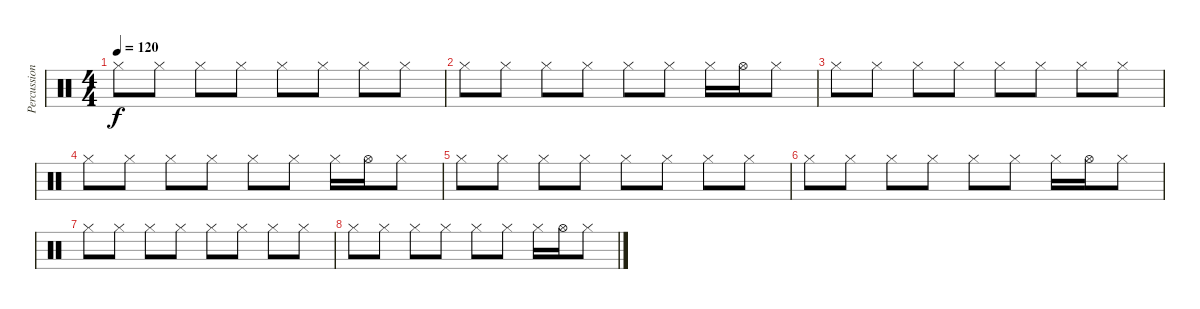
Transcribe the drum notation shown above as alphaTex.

\track ("Percussion" "Percussion") {instrument percussion}
\staff {score}
\articulation defaults
\ts (4 4)
\tempo 120
\clef neutral
\ks c "Hi-Hat (closed)".8{dy f} "Hi-Hat (closed)".8 "Hi-Hat (closed)".8 "Hi-Hat (closed)".8 "Hi-Hat (closed)".8 "Hi-Hat (closed)".8 "Hi-Hat (closed)".8 "Hi-Hat (closed)".8
|
"Hi-Hat (closed)".8 "Hi-Hat (closed)".8 "Hi-Hat (closed)".8 "Hi-Hat (closed)".8 "Hi-Hat (closed)".8 "Hi-Hat (closed)".8 "Hi-Hat (closed)".16 "Hi-Hat (open)".16 "Hi-Hat (closed)".8 |
"Hi-Hat (closed)".8 "Hi-Hat (closed)".8 "Hi-Hat (closed)".8 "Hi-Hat (closed)".8 "Hi-Hat (closed)".8 "Hi-Hat (closed)".8 "Hi-Hat (closed)".8 "Hi-Hat (closed)".8 |
"Hi-Hat (closed)".8 "Hi-Hat (closed)".8 "Hi-Hat (closed)".8 "Hi-Hat (closed)".8 "Hi-Hat (closed)".8 "Hi-Hat (closed)".8 "Hi-Hat (closed)".16 "Hi-Hat (open)".16 "Hi-Hat (closed)".8 |
"Hi-Hat (closed)".8 "Hi-Hat (closed)".8 "Hi-Hat (closed)".8 "Hi-Hat (closed)".8 "Hi-Hat (closed)".8 "Hi-Hat (closed)".8 "Hi-Hat (closed)".8 "Hi-Hat (closed)".8 |
"Hi-Hat (closed)".8 "Hi-Hat (closed)".8 "Hi-Hat (closed)".8 "Hi-Hat (closed)".8 "Hi-Hat (closed)".8 "Hi-Hat (closed)".8 "Hi-Hat (closed)".16 "Hi-Hat (open)".16 "Hi-Hat (closed)".8 |
"Hi-Hat (closed)".8 "Hi-Hat (closed)".8 "Hi-Hat (closed)".8 "Hi-Hat (closed)".8 "Hi-Hat (closed)".8 "Hi-Hat (closed)".8 "Hi-Hat (closed)".8 "Hi-Hat (closed)".8 |
"Hi-Hat (closed)".8 "Hi-Hat (closed)".8 "Hi-Hat (closed)".8 "Hi-Hat (closed)".8 "Hi-Hat (closed)".8 "Hi-Hat (closed)".8 "Hi-Hat (closed)".16 "Hi-Hat (open)".16 "Hi-Hat (closed)".8
